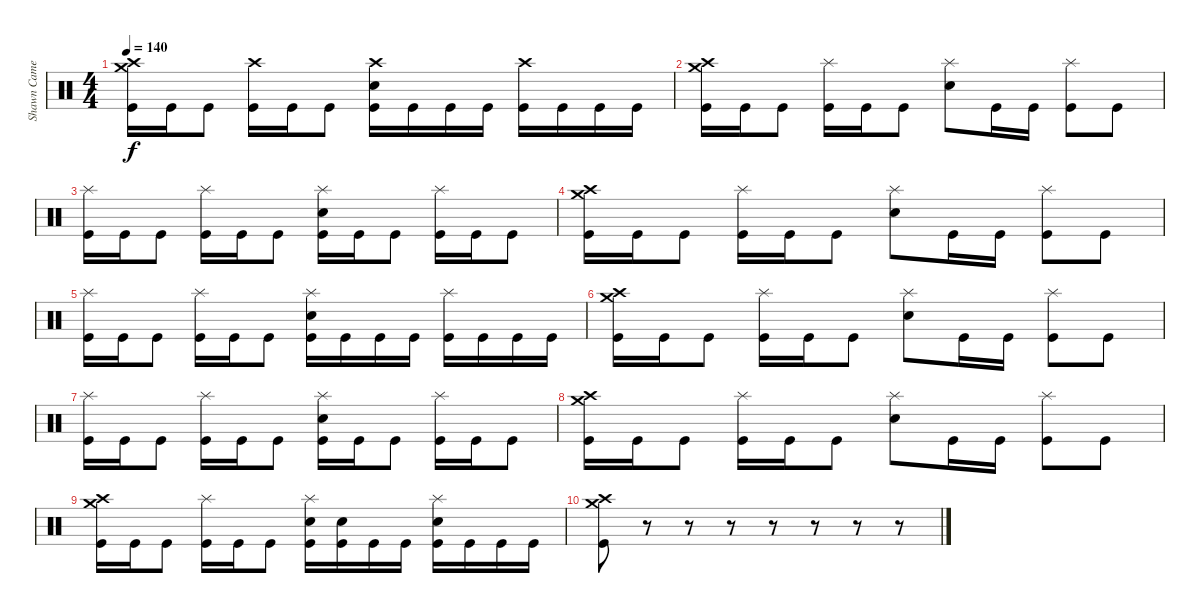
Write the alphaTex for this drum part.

\track ("Shawn Cameron" "Shawn Came") {instrument percussion}
\staff {score}
\articulation defaults
\ts (4 4)
\tempo 140
\clef neutral
\ks c
("Crash medium (hit)" "Crash high (hit)" "Kick (hit)").16{dy f} "Kick (hit)".16 "Kick (hit)".8 ("Crash high (hit)" "Kick (hit)").16 "Kick (hit)".16 "Kick (hit)".8 ("Crash high (hit)" "Snare (hit) 2" "Kick (hit)").16 "Kick (hit)".16 "Kick (hit)".16 "Kick (hit)".16 ("Crash high (hit)" "Kick (hit)").16 "Kick (hit)".16 "Kick (hit)".16 "Kick (hit)".16 |
("Crash medium (hit)" "Crash high (hit)" "Kick (hit)").16 "Kick (hit)".16 "Kick (hit)".8 ("Splash (hit)" "Kick (hit)").16 "Kick (hit)".16 "Kick (hit)".8 ("Splash (hit)" "Snare (hit) 2").8 "Kick (hit)".16 "Kick (hit)".16 ("Splash (hit)" "Kick (hit)").8 "Kick (hit)".8 |
("Splash (hit)" "Kick (hit)").16 "Kick (hit)".16 "Kick (hit)".8 ("Splash (hit)" "Kick (hit)").16 "Kick (hit)".16 "Kick (hit)".8 ("Splash (hit)" "Snare (hit) 2" "Kick (hit)").16 "Kick (hit)".16 "Kick (hit)".8 ("Splash (hit)" "Kick (hit)").16 "Kick (hit)".16 "Kick (hit)".8 |
("Crash medium (hit)" "Crash high (hit)" "Kick (hit)").16 "Kick (hit)".16 "Kick (hit)".8 ("Splash (hit)" "Kick (hit)").16 "Kick (hit)".16 "Kick (hit)".8 ("Splash (hit)" "Snare (hit) 2").8 "Kick (hit)".16 "Kick (hit)".16 ("Splash (hit)" "Kick (hit)").8 "Kick (hit)".8 |
("Splash (hit)" "Kick (hit)").16 "Kick (hit)".16 "Kick (hit)".8 ("Splash (hit)" "Kick (hit)").16 "Kick (hit)".16 "Kick (hit)".8 ("Splash (hit)" "Snare (hit) 2" "Kick (hit)").16 "Kick (hit)".16 "Kick (hit)".16 "Kick (hit)".16 ("Splash (hit)" "Kick (hit)").16 "Kick (hit)".16 "Kick (hit)".16 "Kick (hit)".16 |
("Crash medium (hit)" "Crash high (hit)" "Kick (hit)").16 "Kick (hit)".16 "Kick (hit)".8 ("Splash (hit)" "Kick (hit)").16 "Kick (hit)".16 "Kick (hit)".8 ("Splash (hit)" "Snare (hit) 2").8 "Kick (hit)".16 "Kick (hit)".16 ("Splash (hit)" "Kick (hit)").8 "Kick (hit)".8 |
("Splash (hit)" "Kick (hit)").16 "Kick (hit)".16 "Kick (hit)".8 ("Splash (hit)" "Kick (hit)").16 "Kick (hit)".16 "Kick (hit)".8 ("Splash (hit)" "Snare (hit) 2" "Kick (hit)").16 "Kick (hit)".16 "Kick (hit)".8 ("Splash (hit)" "Kick (hit)").16 "Kick (hit)".16 "Kick (hit)".8 |
("Crash medium (hit)" "Crash high (hit)" "Kick (hit)").16 "Kick (hit)".16 "Kick (hit)".8 ("Splash (hit)" "Kick (hit)").16 "Kick (hit)".16 "Kick (hit)".8 ("Splash (hit)" "Snare (hit) 2").8 "Kick (hit)".16 "Kick (hit)".16 ("Splash (hit)" "Kick (hit)").8 "Kick (hit)".8 |
("Crash medium (hit)" "Crash high (hit)" "Kick (hit)").16 "Kick (hit)".16 "Kick (hit)".8 ("Splash (hit)" "Kick (hit)").16 "Kick (hit)".16 "Kick (hit)".8 ("Splash (hit)" "Snare (hit) 2" "Kick (hit)").16 ("Snare (hit) 2" "Kick (hit)").16 "Kick (hit)".16 "Kick (hit)".16 ("Splash (hit)" "Snare (hit) 2" "Kick (hit)").16 "Kick (hit)".16 "Kick (hit)".16 "Kick (hit)".16 |
("Crash high (hit)" "Crash medium (hit)" "Kick (hit)").8 r.8{volume 0} r.8 r.8 r.8 r.8 r.8 r.8
